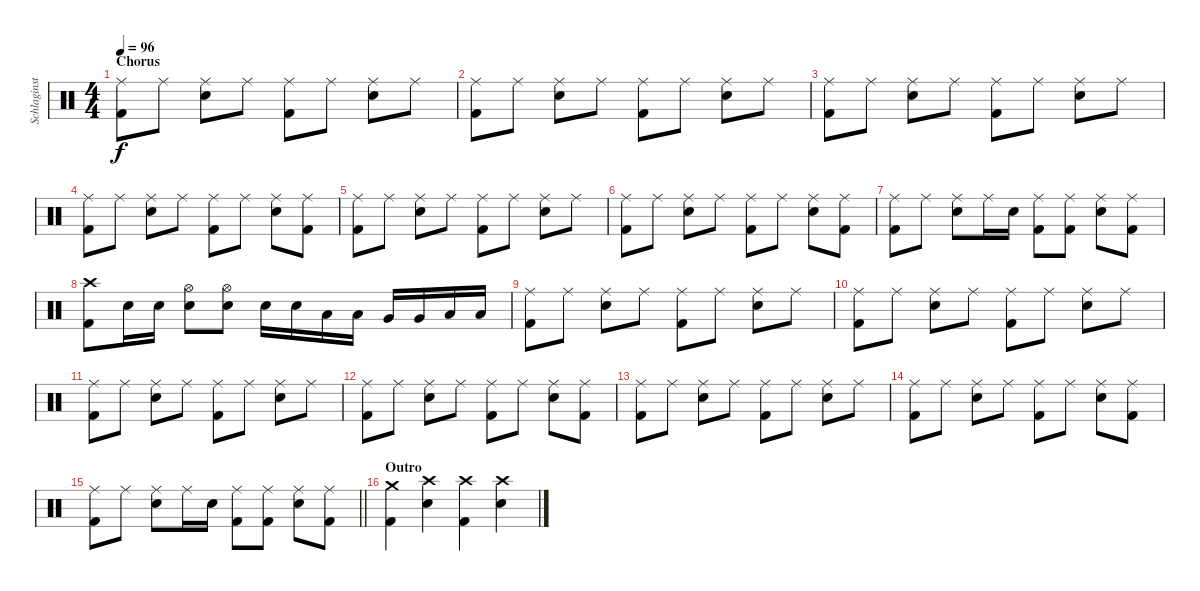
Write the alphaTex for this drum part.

\track ("Schlaginstrumente - Auswahl" "Schlaginst") {instrument percussion}
\staff {score}
\articulation defaults
\ts (4 4)
\section ("" "Chorus")
\tempo 96
\clef neutral
\ks c
("Ride (middle)" "Kick (hit) 2").8{dy f} "Ride (middle)".8 ("Ride (middle)" "Electric Snare (hit)").8 "Ride (middle)".8 ("Ride (middle)" "Kick (hit) 2").8 "Ride (middle)".8 ("Ride (middle)" "Electric Snare (hit)").8 "Ride (middle)".8 |
("Ride (middle)" "Kick (hit) 2").8 "Ride (middle)".8 ("Ride (middle)" "Electric Snare (hit)").8 "Ride (middle)".8 ("Ride (middle)" "Kick (hit) 2").8 "Ride (middle)".8 ("Ride (middle)" "Electric Snare (hit)").8 "Ride (middle)".8 |
("Ride (middle)" "Kick (hit) 2").8 "Ride (middle)".8 ("Ride (middle)" "Electric Snare (hit)").8 "Ride (middle)".8 ("Ride (middle)" "Kick (hit) 2").8 "Ride (middle)".8 ("Ride (middle)" "Electric Snare (hit)").8 "Ride (middle)".8 |
("Ride (middle)" "Kick (hit) 2").8 "Ride (middle)".8 ("Ride (middle)" "Electric Snare (hit)").8 "Ride (middle)".8 ("Ride (middle)" "Kick (hit) 2").8 "Ride (middle)".8 ("Ride (middle)" "Electric Snare (hit)").8 ("Ride (middle)" "Kick (hit) 2").8 |
("Ride (middle)" "Kick (hit) 2").8 "Ride (middle)".8 ("Ride (middle)" "Electric Snare (hit)").8 "Ride (middle)".8 ("Ride (middle)" "Kick (hit) 2").8 "Ride (middle)".8 ("Ride (middle)" "Electric Snare (hit)").8 "Ride (middle)".8 |
("Ride (middle)" "Kick (hit) 2").8 "Ride (middle)".8 ("Ride (middle)" "Electric Snare (hit)").8 "Ride (middle)".8 ("Ride (middle)" "Kick (hit) 2").8 "Ride (middle)".8 ("Ride (middle)" "Electric Snare (hit)").8 ("Ride (middle)" "Kick (hit) 2").8 |
("Ride (middle)" "Kick (hit) 2").8 "Ride (middle)".8 ("Ride (middle)" "Electric Snare (hit)").8 "Ride (middle)".16 "Electric Snare (hit)".16 ("Ride (middle)" "Kick (hit) 2").8 ("Ride (middle)" "Kick (hit) 2").8 ("Ride (middle)" "Electric Snare (hit)").8 ("Ride (middle)" "Kick (hit) 2").8 |
("Crash high (hit)" "Kick (hit) 2").8 "Electric Snare (hit)".16 "Electric Snare (hit)".16 ("Hi-Hat (open)" "Electric Snare (hit)").8 ("Hi-Hat (open)" "Electric Snare (hit)").8 "Electric Snare (hit)".16 "Electric Snare (hit)".16 "Low Tom (hit)".16 "Low Tom (hit)".16 "Very Low Tom (hit)".16 "Very Low Tom (hit)".16 "Low Floor Tom (hit)".16 "Low Floor Tom (hit)".16 |
("Ride (middle)" "Kick (hit) 2").8 "Ride (middle)".8 ("Ride (middle)" "Electric Snare (hit)").8 "Ride (middle)".8 ("Ride (middle)" "Kick (hit) 2").8 "Ride (middle)".8 ("Ride (middle)" "Electric Snare (hit)").8 "Ride (middle)".8 |
("Ride (middle)" "Kick (hit) 2").8 "Ride (middle)".8 ("Ride (middle)" "Electric Snare (hit)").8 "Ride (middle)".8 ("Ride (middle)" "Kick (hit) 2").8 "Ride (middle)".8 ("Ride (middle)" "Electric Snare (hit)").8 "Ride (middle)".8 |
("Ride (middle)" "Kick (hit) 2").8 "Ride (middle)".8 ("Ride (middle)" "Electric Snare (hit)").8 "Ride (middle)".8 ("Ride (middle)" "Kick (hit) 2").8 "Ride (middle)".8 ("Ride (middle)" "Electric Snare (hit)").8 "Ride (middle)".8 |
("Ride (middle)" "Kick (hit) 2").8 "Ride (middle)".8 ("Ride (middle)" "Electric Snare (hit)").8 "Ride (middle)".8 ("Ride (middle)" "Kick (hit) 2").8 "Ride (middle)".8 ("Ride (middle)" "Electric Snare (hit)").8 ("Ride (middle)" "Kick (hit) 2").8 |
("Ride (middle)" "Kick (hit) 2").8 "Ride (middle)".8 ("Ride (middle)" "Electric Snare (hit)").8 "Ride (middle)".8 ("Ride (middle)" "Kick (hit) 2").8 "Ride (middle)".8 ("Ride (middle)" "Electric Snare (hit)").8 "Ride (middle)".8 |
("Ride (middle)" "Kick (hit) 2").8 "Ride (middle)".8 ("Ride (middle)" "Electric Snare (hit)").8 "Ride (middle)".8 ("Ride (middle)" "Kick (hit) 2").8 "Ride (middle)".8 ("Ride (middle)" "Electric Snare (hit)").8 ("Ride (middle)" "Kick (hit) 2").8 |
\barLineRight lightlight
("Ride (middle)" "Kick (hit) 2").8 "Ride (middle)".8 ("Ride (middle)" "Electric Snare (hit)").8 "Ride (middle)".16 "Electric Snare (hit)".16 ("Ride (middle)" "Kick (hit) 2").8 ("Ride (middle)" "Kick (hit) 2").8 ("Ride (middle)" "Electric Snare (hit)").8 ("Ride (middle)" "Kick (hit) 2").8 |
\section ("" "Outro")
("Crash medium (hit)" "Kick (hit) 2").4 ("Crash high (hit)" "Electric Snare (hit)").4 ("Crash high (hit)" "Kick (hit) 2").4 ("Crash high (hit)" "Electric Snare (hit)").4
